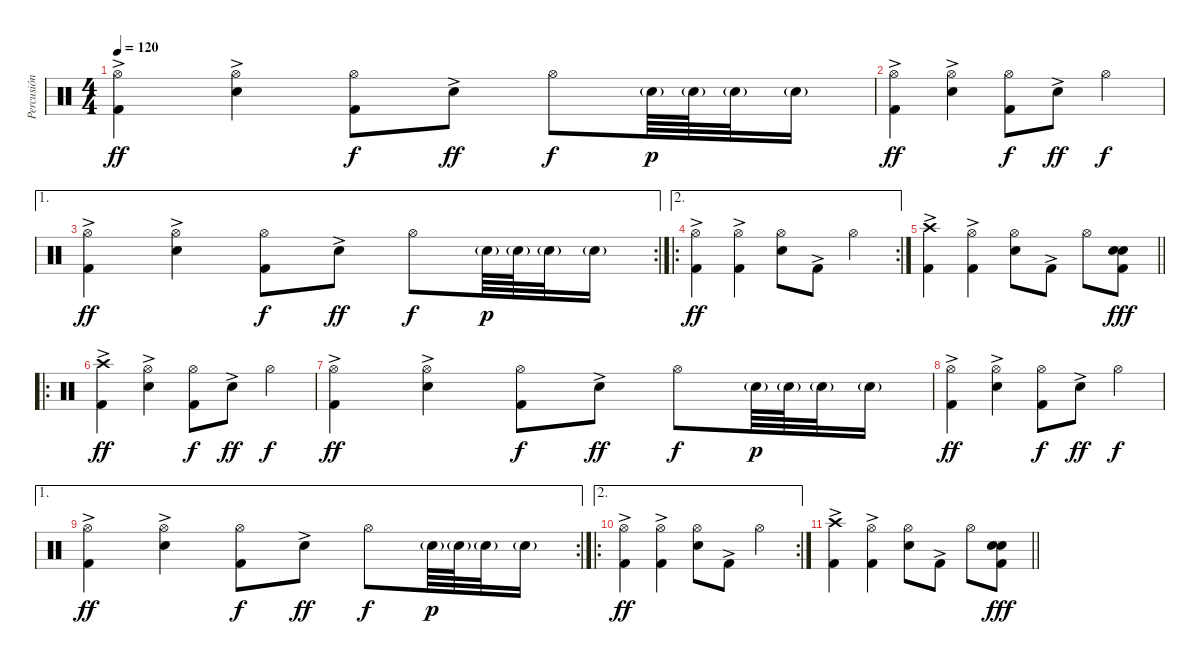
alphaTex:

\track ("Percusión" "Percusión") {instrument percussion}
\staff {score}
\articulation defaults
\ts (4 4)
\tempo 120
\clef neutral
\ks c
("Kick (hit) 2"{ac} "Hi-Hat (open)").4{dy ff} ("Snare (hit) 2"{ac} "Hi-Hat (open)").4 ("Kick (hit) 2" "Hi-Hat (open)").8{dy f} "Snare (hit) 2"{ac}.8{dy ff} "Hi-Hat (open)".8{dy f} "Snare (hit) 2"{g}.64{dy p} "Snare (hit) 2"{g}.64 "Snare (hit) 2"{g}.32 "Snare (hit) 2"{g}.16 |
("Kick (hit) 2"{ac} "Hi-Hat (open)").4{dy ff} ("Snare (hit) 2"{ac} "Hi-Hat (open)").4 ("Kick (hit) 2" "Hi-Hat (open)").8{dy f} "Snare (hit) 2"{ac}.8{dy ff} "Hi-Hat (open)".4{dy f} |
\ae 1
\rc 2
("Kick (hit) 2"{ac} "Hi-Hat (open)").4{dy ff} ("Snare (hit) 2"{ac} "Hi-Hat (open)").4 ("Kick (hit) 2" "Hi-Hat (open)").8{dy f} "Snare (hit) 2"{ac}.8{dy ff} "Hi-Hat (open)".8{dy f} "Snare (hit) 2"{g}.64{dy p} "Snare (hit) 2"{g}.64 "Snare (hit) 2"{g}.32 "Snare (hit) 2"{g}.16 |
\ae 2
\ro
\rc 2
("Kick (hit) 2"{ac} "Hi-Hat (open)").4{dy ff} ("Kick (hit) 2"{ac} "Hi-Hat (open)").4 ("Snare (hit) 2" "Hi-Hat (open)").8 "Kick (hit) 2"{ac}.8 "Hi-Hat (open)".4 |
\barLineRight lightlight
("Kick (hit) 2"{ac} "Crash high (hit)").4 ("Kick (hit) 2"{ac} "Hi-Hat (open)").4 ("Snare (hit) 2" "Hi-Hat (open)").8 "Kick (hit) 2"{ac}.8 "Hi-Hat (open)".8 ("Kick (hit) 2" "Electric Snare (hit)" "Snare (hit) 2").8{dy fff} |
\ro
("Kick (hit) 2"{ac} "Crash high (hit)").4{dy ff} ("Snare (hit) 2"{ac} "Hi-Hat (open)").4 ("Kick (hit) 2" "Hi-Hat (open)").8{dy f} "Snare (hit) 2"{ac}.8{dy ff} "Hi-Hat (open)".4{dy f} |
("Kick (hit) 2"{ac} "Hi-Hat (open)").4{dy ff} ("Snare (hit) 2"{ac} "Hi-Hat (open)").4 ("Kick (hit) 2" "Hi-Hat (open)").8{dy f} "Snare (hit) 2"{ac}.8{dy ff} "Hi-Hat (open)".8{dy f} "Snare (hit) 2"{g}.64{dy p} "Snare (hit) 2"{g}.64 "Snare (hit) 2"{g}.32 "Snare (hit) 2"{g}.16 |
("Kick (hit) 2"{ac} "Hi-Hat (open)").4{dy ff} ("Snare (hit) 2"{ac} "Hi-Hat (open)").4 ("Kick (hit) 2" "Hi-Hat (open)").8{dy f} "Snare (hit) 2"{ac}.8{dy ff} "Hi-Hat (open)".4{dy f} |
\ae 1
\rc 2
("Kick (hit) 2"{ac} "Hi-Hat (open)").4{dy ff} ("Snare (hit) 2"{ac} "Hi-Hat (open)").4 ("Kick (hit) 2" "Hi-Hat (open)").8{dy f} "Snare (hit) 2"{ac}.8{dy ff} "Hi-Hat (open)".8{dy f} "Snare (hit) 2"{g}.64{dy p} "Snare (hit) 2"{g}.64 "Snare (hit) 2"{g}.32 "Snare (hit) 2"{g}.16 |
\ae 2
\ro
\rc 2
("Kick (hit) 2"{ac} "Hi-Hat (open)").4{dy ff} ("Kick (hit) 2"{ac} "Hi-Hat (open)").4 ("Snare (hit) 2" "Hi-Hat (open)").8 "Kick (hit) 2"{ac}.8 "Hi-Hat (open)".4 |
\barLineRight lightlight
("Kick (hit) 2"{ac} "Crash high (hit)").4 ("Kick (hit) 2"{ac} "Hi-Hat (open)").4 ("Snare (hit) 2" "Hi-Hat (open)").8 "Kick (hit) 2"{ac}.8 "Hi-Hat (open)".8 ("Kick (hit) 2" "Electric Snare (hit)" "Snare (hit) 2").8{dy fff}
